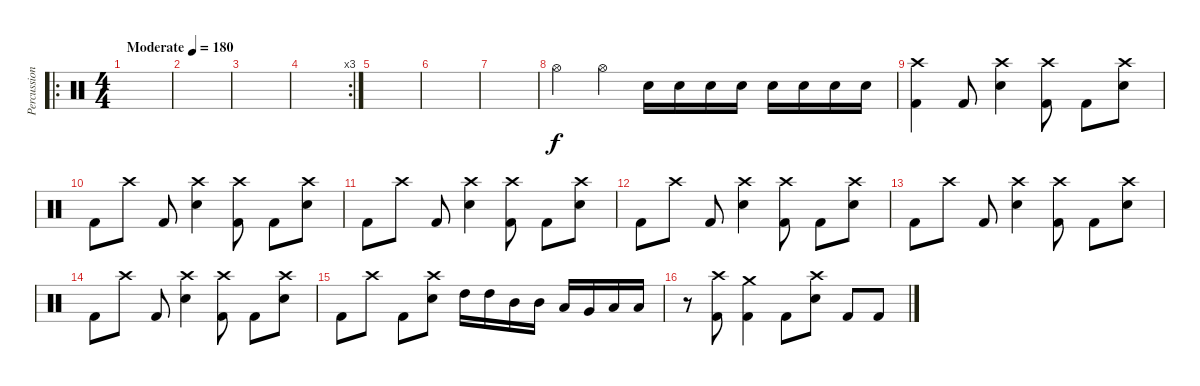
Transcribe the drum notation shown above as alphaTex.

\track ("Percussion" "Percussion") {instrument percussion}
\staff {score}
\articulation defaults
\ro
\ts (4 4)
\tempo (180 "Moderate")
\clef neutral
\ks c
|
|
|
\rc 3
|
|
|
|
"Hi-Hat (open)".4 "Hi-Hat (open)".4 "Electric Snare (hit)".16 "Electric Snare (hit)".16 "Electric Snare (hit)".16 "Electric Snare (hit)".16 "Electric Snare (hit)".16 "Electric Snare (hit)".16 "Electric Snare (hit)".16 "Electric Snare (hit)".16 |
("Kick (hit) 2" "Crash high (hit)").4 "Kick (hit) 2".8 ("Crash high (hit)" "Electric Snare (hit)").4 ("Crash high (hit)" "Kick (hit) 2").8 "Kick (hit) 2".8 ("Crash high (hit)" "Electric Snare (hit)").8 |
"Kick (hit) 2".8 "Crash high (hit)".8 "Kick (hit) 2".8 ("Crash high (hit)" "Electric Snare (hit)").4 ("Kick (hit) 2" "Crash high (hit)").8 "Kick (hit) 2".8 ("Crash high (hit)" "Electric Snare (hit)").8 |
"Kick (hit) 2".8 "Crash high (hit)".8 "Kick (hit) 2".8 ("Crash high (hit)" "Electric Snare (hit)").4 ("Kick (hit) 2" "Crash high (hit)").8 "Kick (hit) 2".8 ("Crash high (hit)" "Electric Snare (hit)").8 |
"Kick (hit) 2".8 "Crash high (hit)".8 "Kick (hit) 2".8 ("Crash high (hit)" "Electric Snare (hit)").4 ("Kick (hit) 2" "Crash high (hit)").8 "Kick (hit) 2".8 ("Crash high (hit)" "Electric Snare (hit)").8 |
"Kick (hit) 2".8 "Crash high (hit)".8 "Kick (hit) 2".8 ("Crash high (hit)" "Electric Snare (hit)").4 ("Kick (hit) 2" "Crash high (hit)").8 "Kick (hit) 2".8 ("Crash high (hit)" "Electric Snare (hit)").8 |
"Kick (hit) 2".8 "Crash high (hit)".8 "Kick (hit) 2".8 ("Crash high (hit)" "Electric Snare (hit)").4 ("Kick (hit) 2" "Crash high (hit)").8 "Kick (hit) 2".8 ("Crash high (hit)" "Electric Snare (hit)").8 |
"Kick (hit) 2".8 "Crash high (hit)".8 "Kick (hit) 2".8 ("Crash high (hit)" "Electric Snare (hit)").8 "High Tom (hit)".16 "High Tom (hit)".16 "Mid Tom (hit)".16 "Mid Tom (hit)".16 "Low Tom (hit)".16 "Very Low Tom (hit)".16 "Low Floor Tom (hit)".16 "Low Floor Tom (hit)".16 |
r.8 ("Crash high (hit)" "Kick (hit) 2").8 ("Crash medium (hit)" "Kick (hit) 2").4 "Kick (hit) 2".8 ("Crash high (hit)" "Electric Snare (hit)").8 "Kick (hit) 2".8 "Kick (hit) 2".8
